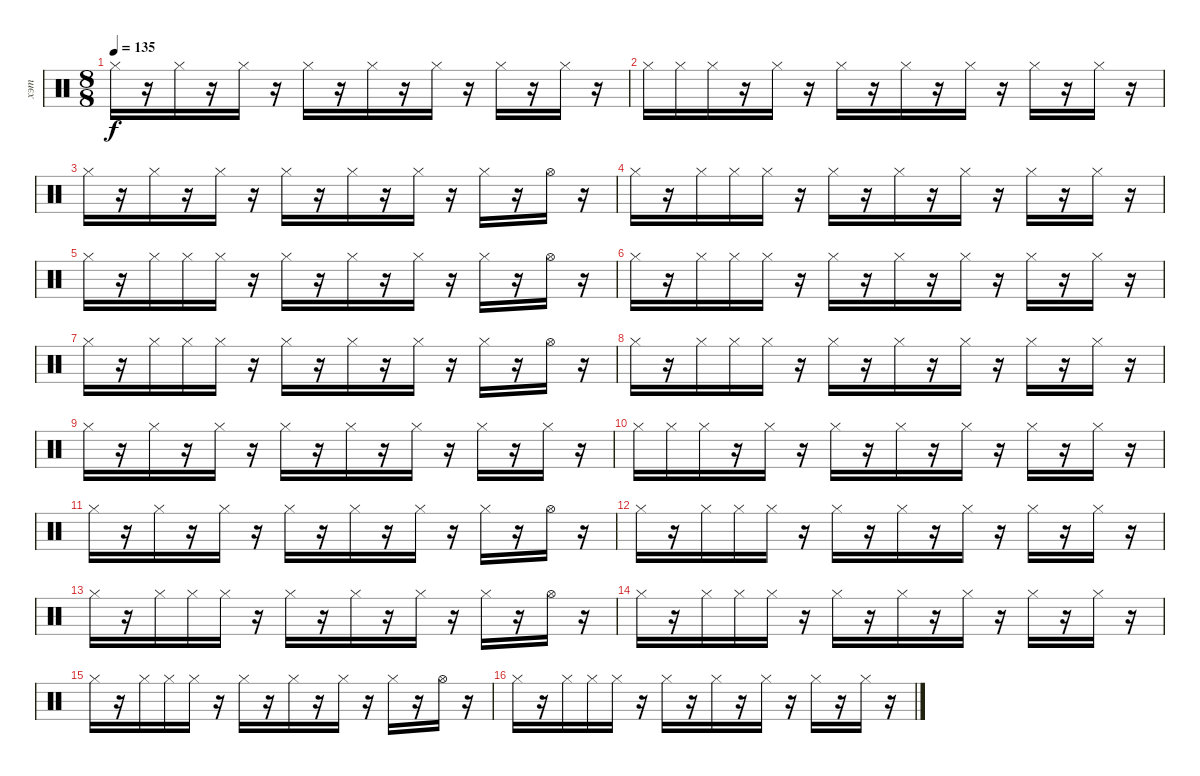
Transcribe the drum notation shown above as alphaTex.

\track ("хэт" "хэт") {instrument percussion}
\staff {score}
\articulation defaults
\ts (8 8)
\tempo 135
\clef neutral
\ks c "Hi-Hat (closed)".16{dy f}
r.16 "Hi-Hat (closed)".16 r.16 "Hi-Hat (closed)".16 r.16 "Hi-Hat (closed)".16 r.16 "Hi-Hat (closed)".16 r.16 "Hi-Hat (closed)".16 r.16 "Hi-Hat (closed)".16 r.16 "Hi-Hat (closed)".16 r.16 |
"Hi-Hat (closed)".16 "Hi-Hat (closed)".16 "Hi-Hat (closed)".16 r.16 "Hi-Hat (closed)".16 r.16 "Hi-Hat (closed)".16 r.16 "Hi-Hat (closed)".16 r.16 "Hi-Hat (closed)".16 r.16 "Hi-Hat (closed)".16 r.16 "Hi-Hat (closed)".16 r.16 |
"Hi-Hat (closed)".16 r.16 "Hi-Hat (closed)".16 r.16 "Hi-Hat (closed)".16 r.16 "Hi-Hat (closed)".16 r.16 "Hi-Hat (closed)".16 r.16 "Hi-Hat (closed)".16 r.16 "Hi-Hat (closed)".16 r.16 "Hi-Hat (open)".16 r.16 |
"Hi-Hat (closed)".16 r.16 "Hi-Hat (closed)".16 "Hi-Hat (closed)".16 "Hi-Hat (closed)".16 r.16 "Hi-Hat (closed)".16 r.16 "Hi-Hat (closed)".16 r.16 "Hi-Hat (closed)".16 r.16 "Hi-Hat (closed)".16 r.16 "Hi-Hat (closed)".16 r.16 |
"Hi-Hat (closed)".16 r.16 "Hi-Hat (closed)".16 "Hi-Hat (closed)".16 "Hi-Hat (closed)".16 r.16 "Hi-Hat (closed)".16 r.16 "Hi-Hat (closed)".16 r.16 "Hi-Hat (closed)".16 r.16 "Hi-Hat (closed)".16 r.16 "Hi-Hat (open)".16 r.16 |
"Hi-Hat (closed)".16 r.16 "Hi-Hat (closed)".16 "Hi-Hat (closed)".16 "Hi-Hat (closed)".16 r.16 "Hi-Hat (closed)".16 r.16 "Hi-Hat (closed)".16 r.16 "Hi-Hat (closed)".16 r.16 "Hi-Hat (closed)".16 r.16 "Hi-Hat (closed)".16 r.16 |
"Hi-Hat (closed)".16 r.16 "Hi-Hat (closed)".16 "Hi-Hat (closed)".16 "Hi-Hat (closed)".16 r.16 "Hi-Hat (closed)".16 r.16 "Hi-Hat (closed)".16 r.16 "Hi-Hat (closed)".16 r.16 "Hi-Hat (closed)".16 r.16 "Hi-Hat (open)".16 r.16 |
"Hi-Hat (closed)".16 r.16 "Hi-Hat (closed)".16 "Hi-Hat (closed)".16 "Hi-Hat (closed)".16 r.16 "Hi-Hat (closed)".16 r.16 "Hi-Hat (closed)".16 r.16 "Hi-Hat (closed)".16 r.16 "Hi-Hat (closed)".16 r.16 "Hi-Hat (closed)".16 r.16 |
"Hi-Hat (closed)".16 r.16 "Hi-Hat (closed)".16 r.16 "Hi-Hat (closed)".16 r.16 "Hi-Hat (closed)".16 r.16 "Hi-Hat (closed)".16 r.16 "Hi-Hat (closed)".16 r.16 "Hi-Hat (closed)".16 r.16 "Hi-Hat (closed)".16 r.16 |
"Hi-Hat (closed)".16 "Hi-Hat (closed)".16 "Hi-Hat (closed)".16 r.16 "Hi-Hat (closed)".16 r.16 "Hi-Hat (closed)".16 r.16 "Hi-Hat (closed)".16 r.16 "Hi-Hat (closed)".16 r.16 "Hi-Hat (closed)".16 r.16 "Hi-Hat (closed)".16 r.16 |
"Hi-Hat (closed)".16 r.16 "Hi-Hat (closed)".16 r.16 "Hi-Hat (closed)".16 r.16 "Hi-Hat (closed)".16 r.16 "Hi-Hat (closed)".16 r.16 "Hi-Hat (closed)".16 r.16 "Hi-Hat (closed)".16 r.16 "Hi-Hat (open)".16 r.16 |
"Hi-Hat (closed)".16 r.16 "Hi-Hat (closed)".16 "Hi-Hat (closed)".16 "Hi-Hat (closed)".16 r.16 "Hi-Hat (closed)".16 r.16 "Hi-Hat (closed)".16 r.16 "Hi-Hat (closed)".16 r.16 "Hi-Hat (closed)".16 r.16 "Hi-Hat (closed)".16 r.16 |
"Hi-Hat (closed)".16 r.16 "Hi-Hat (closed)".16 "Hi-Hat (closed)".16 "Hi-Hat (closed)".16 r.16 "Hi-Hat (closed)".16 r.16 "Hi-Hat (closed)".16 r.16 "Hi-Hat (closed)".16 r.16 "Hi-Hat (closed)".16 r.16 "Hi-Hat (open)".16 r.16 |
"Hi-Hat (closed)".16 r.16 "Hi-Hat (closed)".16 "Hi-Hat (closed)".16 "Hi-Hat (closed)".16 r.16 "Hi-Hat (closed)".16 r.16 "Hi-Hat (closed)".16 r.16 "Hi-Hat (closed)".16 r.16 "Hi-Hat (closed)".16 r.16 "Hi-Hat (closed)".16 r.16 |
"Hi-Hat (closed)".16 r.16 "Hi-Hat (closed)".16 "Hi-Hat (closed)".16 "Hi-Hat (closed)".16 r.16 "Hi-Hat (closed)".16 r.16 "Hi-Hat (closed)".16 r.16 "Hi-Hat (closed)".16 r.16 "Hi-Hat (closed)".16 r.16 "Hi-Hat (open)".16 r.16 |
"Hi-Hat (closed)".16 r.16 "Hi-Hat (closed)".16 "Hi-Hat (closed)".16 "Hi-Hat (closed)".16 r.16 "Hi-Hat (closed)".16 r.16 "Hi-Hat (closed)".16 r.16 "Hi-Hat (closed)".16 r.16 "Hi-Hat (closed)".16 r.16 "Hi-Hat (closed)".16 r.16
